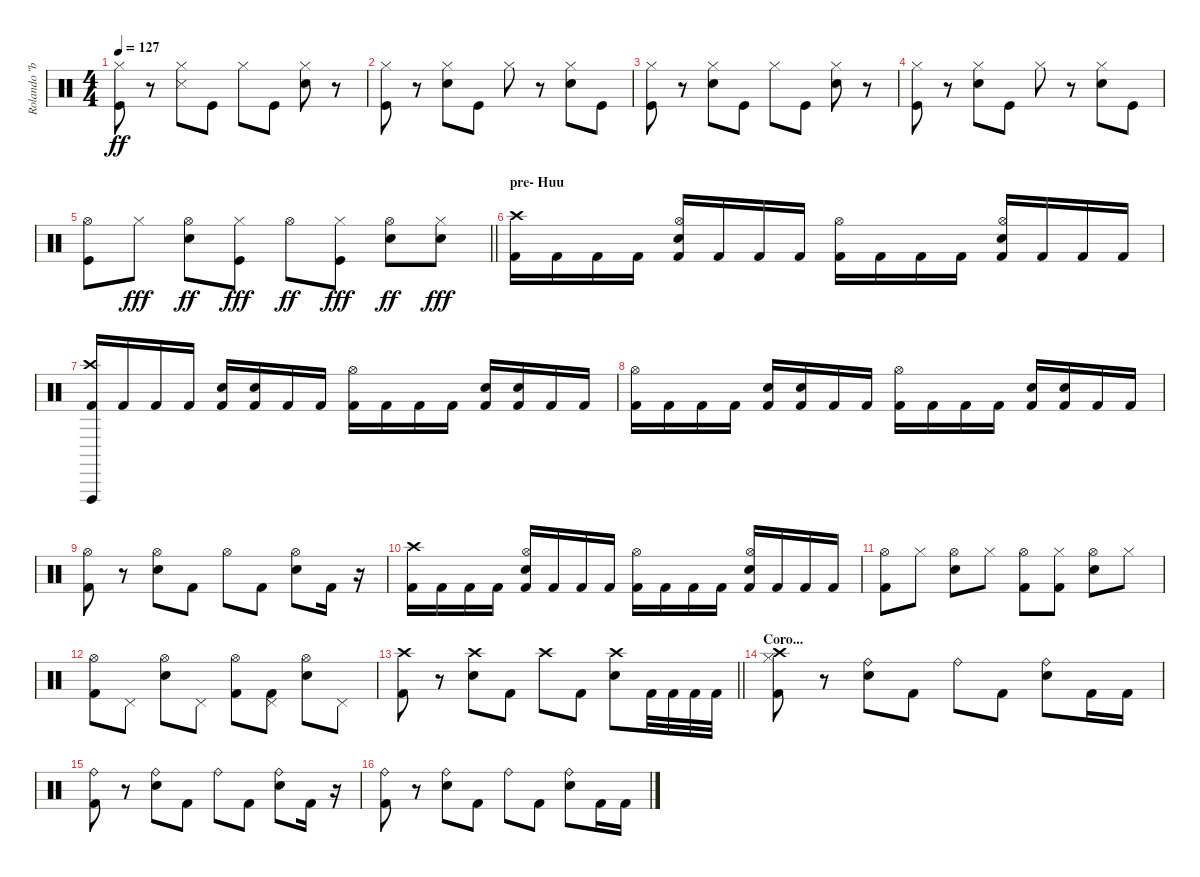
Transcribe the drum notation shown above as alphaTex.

\track ("Rolando \"bataka\"" "Rolando \"b") {instrument percussion}
\staff {score}
\articulation defaults
\ts (4 4)
\tempo 127
\clef neutral
\ks c
("Kick (hit)" "Hi-Hat (closed)").8{dy ff} r.8 ("Snare (side stick) 3" "Hi-Hat (closed)").8 "Kick (hit)".8 "Hi-Hat (closed)".8 "Kick (hit)".8 ("Electric Snare (hit)" "Hi-Hat (closed)").8 r.8 |
("Kick (hit)" "Hi-Hat (closed)").8 r.8 ("Electric Snare (hit)" "Hi-Hat (closed)").8 "Kick (hit)".8 "Hi-Hat (closed)".8 r.8 ("Electric Snare (hit)" "Hi-Hat (closed)").8 "Kick (hit)".8 |
("Kick (hit)" "Hi-Hat (closed)").8 r.8 ("Electric Snare (hit)" "Hi-Hat (closed)").8 "Kick (hit)".8 "Hi-Hat (closed)".8 "Kick (hit)".8 ("Electric Snare (hit)" "Hi-Hat (closed)").8 r.8 |
("Kick (hit)" "Hi-Hat (closed)").8 r.8 ("Electric Snare (hit)" "Hi-Hat (closed)").8 "Kick (hit)".8 "Hi-Hat (closed)".8 r.8 ("Electric Snare (hit)" "Hi-Hat (closed)").8 "Kick (hit)".8 |
\barLineRight lightlight
("Kick (hit)" "Hi-Hat (open)").8 "Hi-Hat (closed)".8{dy fff} ("Electric Snare (hit)" "Hi-Hat (open)").8{dy ff} ("Kick (hit)" "Hi-Hat (closed)").8{dy fff} "Hi-Hat (open)".8{dy ff} ("Kick (hit)" "Hi-Hat (closed)").8{dy fff} ("Electric Snare (hit)" "Hi-Hat (open)").8{dy ff} ("Electric Snare (hit)" "Hi-Hat (closed)").8{dy fff} |
\section ("" "pre- Huu")
("Kick (hit) 2" "Crash high (hit)").16 "Kick (hit) 2".16 "Kick (hit) 2".16 "Kick (hit) 2".16 ("Kick (hit) 2" "Electric Snare (hit)" "Hi-Hat (open)").16 "Kick (hit) 2".16 "Kick (hit) 2".16 "Kick (hit) 2".16 ("Kick (hit) 2" "Hi-Hat (open)").16 "Kick (hit) 2".16 "Kick (hit) 2".16 "Kick (hit) 2".16 ("Kick (hit) 2" "Electric Snare (hit)" "Hi-Hat (open)").16 "Kick (hit) 2".16 "Kick (hit) 2".16 "Kick (hit) 2".16 |
("Kick (hit) 2" "Vibraslap (hit)" "Crash high (hit)").16 "Kick (hit) 2".16 "Kick (hit) 2".16 "Kick (hit) 2".16 ("Kick (hit) 2" "Electric Snare (hit)").16 ("Kick (hit) 2" "Electric Snare (hit)").16 "Kick (hit) 2".16 "Kick (hit) 2".16 ("Kick (hit) 2" "Hi-Hat (open)").16 "Kick (hit) 2".16 "Kick (hit) 2".16 "Kick (hit) 2".16 ("Kick (hit) 2" "Electric Snare (hit)").16 ("Kick (hit) 2" "Electric Snare (hit)").16 "Kick (hit) 2".16 "Kick (hit) 2".16 |
("Kick (hit) 2" "Hi-Hat (open)").16 "Kick (hit) 2".16 "Kick (hit) 2".16 "Kick (hit) 2".16 ("Kick (hit) 2" "Electric Snare (hit)").16 ("Kick (hit) 2" "Electric Snare (hit)").16 "Kick (hit) 2".16 "Kick (hit) 2".16 ("Kick (hit) 2" "Hi-Hat (open)").16 "Kick (hit) 2".16 "Kick (hit) 2".16 "Kick (hit) 2".16 ("Kick (hit) 2" "Electric Snare (hit)").16 ("Kick (hit) 2" "Electric Snare (hit)").16 "Kick (hit) 2".16 "Kick (hit) 2".16 |
("Kick (hit) 2" "Hi-Hat (open)").8 r.8 ("Electric Snare (hit)" "Hi-Hat (open)").8 "Kick (hit) 2".8 "Hi-Hat (open)".8 "Kick (hit) 2".8 ("Electric Snare (hit)" "Hi-Hat (open)").8 "Kick (hit) 2".16 r.16 |
("Kick (hit) 2" "Crash high (hit)").16 "Kick (hit) 2".16 "Kick (hit) 2".16 "Kick (hit) 2".16 ("Kick (hit) 2" "Electric Snare (hit)" "Hi-Hat (open)").16 "Kick (hit) 2".16 "Kick (hit) 2".16 "Kick (hit) 2".16 ("Kick (hit) 2" "Hi-Hat (open)").16 "Kick (hit) 2".16 "Kick (hit) 2".16 "Kick (hit) 2".16 ("Kick (hit) 2" "Electric Snare (hit)" "Hi-Hat (open)").16 "Kick (hit) 2".16 "Kick (hit) 2".16 "Kick (hit) 2".16 |
("Kick (hit) 2" "Hi-Hat (open)").8 "Hi-Hat (closed)".8 ("Electric Snare (hit)" "Hi-Hat (open)").8 "Hi-Hat (closed)".8 ("Kick (hit) 2" "Hi-Hat (open)").8 ("Kick (hit) 2" "Hi-Hat (closed)").8 ("Electric Snare (hit)" "Hi-Hat (open)").8 "Hi-Hat (closed)".8 |
("Kick (hit) 2" "Hi-Hat (open)").8 "Pedal Hi-Hat (hit)".8 ("Electric Snare (hit)" "Hi-Hat (open)").8 "Pedal Hi-Hat (hit)".8 ("Kick (hit) 2" "Hi-Hat (open)").8 ("Kick (hit) 2" "Pedal Hi-Hat (hit)").8 ("Electric Snare (hit)" "Hi-Hat (open)").8 "Pedal Hi-Hat (hit)".8 |
\barLineRight lightlight
("Kick (hit) 2" "Crash high (hit)").8 r.8 ("Electric Snare (hit)" "Crash high (hit)").8 "Kick (hit) 2".8 "Crash high (hit)".8 "Kick (hit) 2".8 ("Electric Snare (hit)" "Crash high (hit)").8 "Kick (hit) 2".32 "Kick (hit) 2".32 "Kick (hit) 2".32 "Kick (hit) 2".32 |
\section ("" "Coro...")
("Kick (hit) 2" "Hi-Hat (closed)" "Crash high (hit)").8 r.8 ("Electric Snare (hit)" "Ride (bell)").8 "Kick (hit) 2".8 "Ride (bell)".8 "Kick (hit) 2".8 ("Electric Snare (hit)" "Ride (bell)").8 "Kick (hit) 2".16 "Kick (hit) 2".16 |
("Kick (hit) 2" "Ride (bell)").8 r.8 ("Electric Snare (hit)" "Ride (bell)").8 "Kick (hit) 2".8 "Ride (bell)".8 "Kick (hit) 2".8 ("Electric Snare (hit)" "Ride (bell)").8 "Kick (hit) 2".16 r.16 |
("Kick (hit) 2" "Ride (bell)").8 r.8 ("Electric Snare (hit)" "Ride (bell)").8 "Kick (hit) 2".8 "Ride (bell)".8 "Kick (hit) 2".8 ("Electric Snare (hit)" "Ride (bell)").8 "Kick (hit) 2".16 "Kick (hit) 2".16
